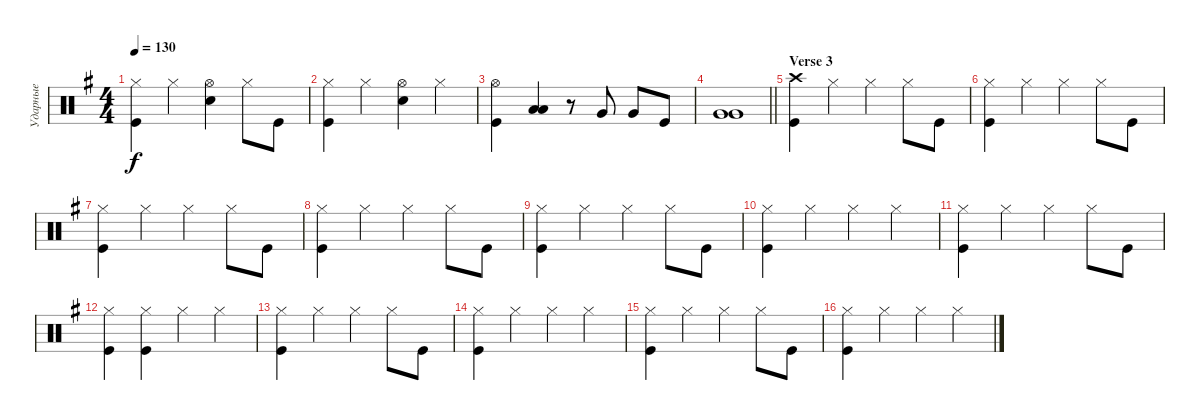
\track ("Ударные" "Ударные") {instrument percussion}
\staff {score}
\articulation defaults
\ts (4 4)
\tempo 130
\clef neutral
\ks eminor
("Hi-Hat (closed)" "Kick (hit)").4{dy f} "Hi-Hat (closed)".4 ("Hi-Hat (open)" "Snare (hit) 2").4 "Hi-Hat (closed)".8 "Kick (hit)".8 |
("Hi-Hat (closed)" "Kick (hit)").4 "Hi-Hat (closed)".4 ("Hi-Hat (open)" "Snare (hit) 2").4 "Hi-Hat (closed)".4 |
("Kick (hit)" "Hi-Hat (open)").4 ("Low Tom (hit)" "Low Tom (hit)").4{bd 120} r.8 "Very Low Tom (hit)".8 "Very Low Tom (hit)".8 "Kick (hit)".8 |
\barLineRight lightlight
("Very Low Tom (hit)" "Very Low Tom (hit)").1{bd 240} |
\section ("" "Verse 3")
("Kick (hit)" "Crash high (hit)").4 "Hi-Hat (closed)".4 "Hi-Hat (closed)".4 "Hi-Hat (closed)".8 "Kick (hit)".8 |
("Kick (hit)" "Hi-Hat (closed)").4 "Hi-Hat (closed)".4 "Hi-Hat (closed)".4 "Hi-Hat (closed)".8 "Kick (hit)".8 |
("Kick (hit)" "Hi-Hat (closed)").4 "Hi-Hat (closed)".4 "Hi-Hat (closed)".4 "Hi-Hat (closed)".8 "Kick (hit)".8 |
("Kick (hit)" "Hi-Hat (closed)").4 "Hi-Hat (closed)".4 "Hi-Hat (closed)".4 "Hi-Hat (closed)".8 "Kick (hit)".8 |
("Kick (hit)" "Hi-Hat (closed)").4 "Hi-Hat (closed)".4 "Hi-Hat (closed)".4 "Hi-Hat (closed)".8 "Kick (hit)".8 |
("Kick (hit)" "Hi-Hat (closed)").4 "Hi-Hat (closed)".4 "Hi-Hat (closed)".4 "Hi-Hat (closed)".4 |
("Kick (hit)" "Hi-Hat (closed)").4 "Hi-Hat (closed)".4 "Hi-Hat (closed)".4 "Hi-Hat (closed)".8 "Kick (hit)".8 |
("Kick (hit)" "Hi-Hat (closed)").4 ("Hi-Hat (closed)" "Kick (hit)").4 "Hi-Hat (closed)".4 "Hi-Hat (closed)".4 |
("Kick (hit)" "Hi-Hat (closed)").4 "Hi-Hat (closed)".4 "Hi-Hat (closed)".4 "Hi-Hat (closed)".8 "Kick (hit)".8 |
("Kick (hit)" "Hi-Hat (closed)").4 "Hi-Hat (closed)".4 "Hi-Hat (closed)".4 "Hi-Hat (closed)".4 |
("Kick (hit)" "Hi-Hat (closed)").4 "Hi-Hat (closed)".4 "Hi-Hat (closed)".4 "Hi-Hat (closed)".8 "Kick (hit)".8 |
("Kick (hit)" "Hi-Hat (closed)").4 "Hi-Hat (closed)".4 "Hi-Hat (closed)".4 "Hi-Hat (closed)".4
